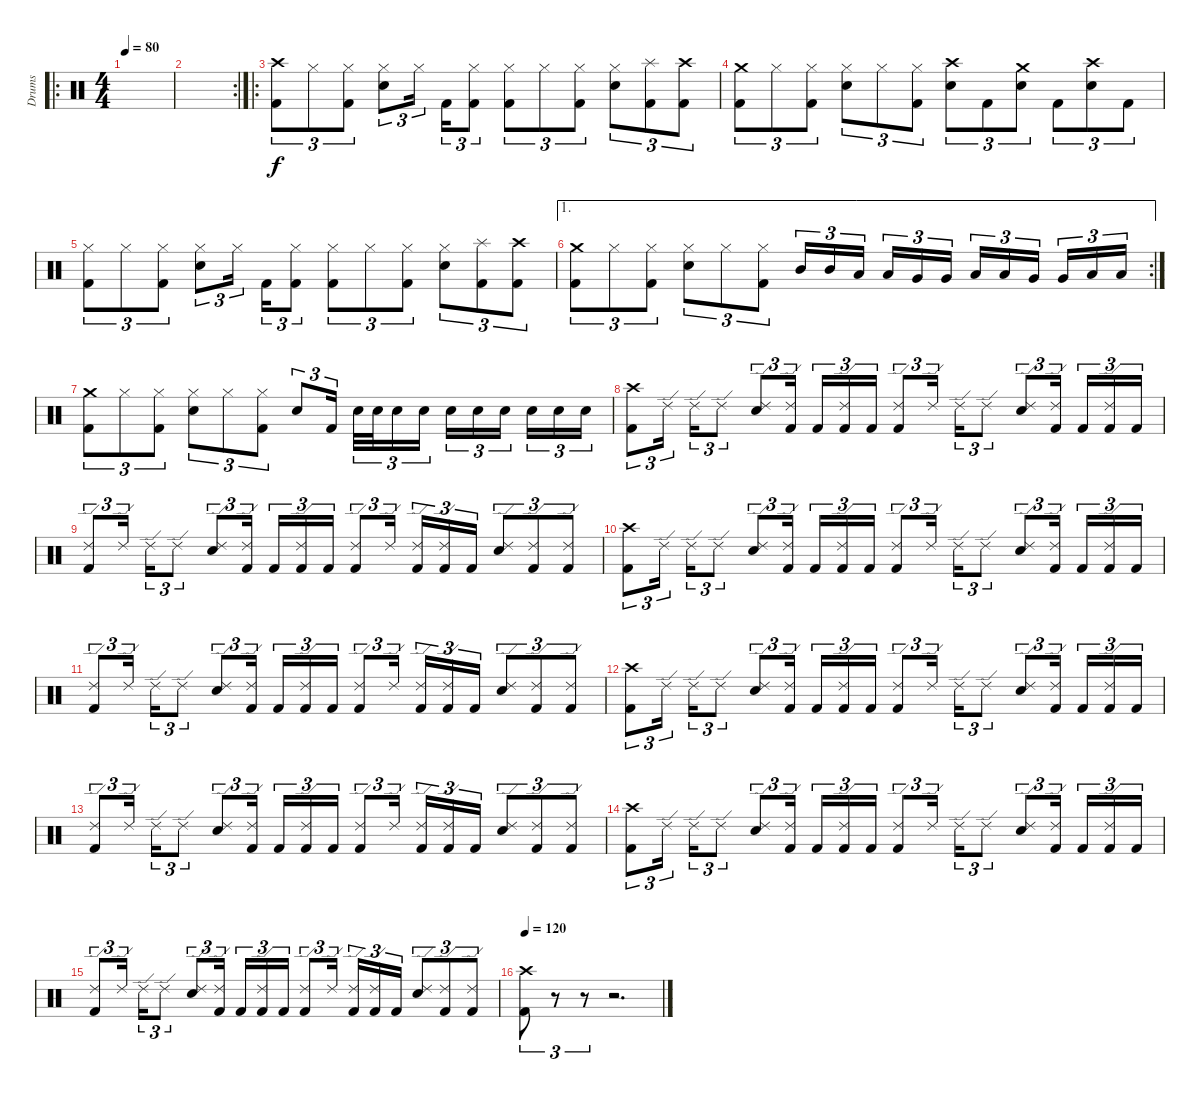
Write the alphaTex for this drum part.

\track ("Drums" "Drums") {instrument percussion}
\staff {score}
\articulation defaults
\ro
\ts (4 4)
\tempo 80
\clef neutral
\ks c
|
\rc 2
|
\ro
("Crash high (hit)" "Kick (hit) 2").8{tu (3 2)} "Hi-Hat (closed)".8{tu (3 2)} ("Hi-Hat (closed)" "Kick (hit) 2").8{tu (3 2)} ("Hi-Hat (closed)" "Electric Snare (hit)").8{tu (3 2)} "Hi-Hat (closed)".16{tu (3 2)} "Kick (hit) 2".16{tu (3 2)} ("Hi-Hat (closed)" "Kick (hit) 2").8{tu (3 2)} ("Hi-Hat (closed)" "Kick (hit) 2").8{tu (3 2)} "Hi-Hat (closed)".8{tu (3 2)} ("Hi-Hat (closed)" "Kick (hit) 2").8{tu (3 2)} ("Hi-Hat (closed)" "Electric Snare (hit)").8{tu (3 2)} ("Splash (hit)" "Kick (hit) 2").8{tu (3 2)} ("Crash high (hit)" "Kick (hit) 2").8{tu (3 2)} |
("Crash medium (hit)" "Kick (hit) 2").8{tu (3 2)} "Hi-Hat (closed)".8{tu (3 2)} ("Hi-Hat (closed)" "Kick (hit) 2").8{tu (3 2)} ("Hi-Hat (closed)" "Electric Snare (hit)").8{tu (3 2)} "Hi-Hat (closed)".8{tu (3 2)} ("Hi-Hat (closed)" "Kick (hit) 2").8{tu (3 2)} ("Crash high (hit)" "Electric Snare (hit)").8{tu (3 2)} "Kick (hit) 2".8{tu (3 2)} ("Crash medium (hit)" "Electric Snare (hit)").8{tu (3 2)} "Kick (hit) 2".8{tu (3 2)} ("Crash high (hit)" "Electric Snare (hit)").8{tu (3 2)} "Kick (hit) 2".8{tu (3 2)} |
("Hi-Hat (closed)" "Kick (hit) 2").8{tu (3 2)} "Hi-Hat (closed)".8{tu (3 2)} ("Hi-Hat (closed)" "Kick (hit) 2").8{tu (3 2)} ("Hi-Hat (closed)" "Electric Snare (hit)").8{tu (3 2)} "Hi-Hat (closed)".16{tu (3 2)} "Kick (hit) 2".16{tu (3 2)} ("Hi-Hat (closed)" "Kick (hit) 2").8{tu (3 2)} ("Hi-Hat (closed)" "Kick (hit) 2").8{tu (3 2)} "Hi-Hat (closed)".8{tu (3 2)} ("Hi-Hat (closed)" "Kick (hit) 2").8{tu (3 2)} ("Hi-Hat (closed)" "Electric Snare (hit)").8{tu (3 2)} ("Splash (hit)" "Kick (hit) 2").8{tu (3 2)} ("Crash high (hit)" "Kick (hit) 2").8{tu (3 2)} |
\ae 1
\rc 2
("Crash medium (hit)" "Kick (hit) 2").8{tu (3 2)} "Hi-Hat (closed)".8{tu (3 2)} ("Hi-Hat (closed)" "Kick (hit) 2").8{tu (3 2)} ("Hi-Hat (closed)" "Electric Snare (hit)").8{tu (3 2)} "Hi-Hat (closed)".8{tu (3 2)} ("Hi-Hat (closed)" "Kick (hit) 2").8{tu (3 2)} "Mid Tom (hit)".16{tu (3 2)} "Mid Tom (hit)".16{tu (3 2)} "Low Tom (hit)".16{tu (3 2)} "Low Tom (hit)".16{tu (3 2)} "Very Low Tom (hit)".16{tu (3 2)} "Very Low Tom (hit)".16{tu (3 2)} "Low Tom (hit)".16{tu (3 2)} "Low Tom (hit)".16{tu (3 2)} "Very Low Tom (hit)".16{tu (3 2)} "Very Low Tom (hit)".16{tu (3 2)} "Low Floor Tom (hit)".16{tu (3 2)} "Low Floor Tom (hit)".16{tu (3 2)} |
("Crash medium (hit)" "Kick (hit) 2").8{tu (3 2)} "Hi-Hat (closed)".8{tu (3 2)} ("Hi-Hat (closed)" "Kick (hit) 2").8{tu (3 2)} ("Hi-Hat (closed)" "Electric Snare (hit)").8{tu (3 2)} "Hi-Hat (closed)".8{tu (3 2)} ("Hi-Hat (closed)" "Kick (hit) 2").8{tu (3 2)} "Electric Snare (hit)".8{tu (3 2)} "Kick (hit) 2".16{tu (3 2)} "Electric Snare (hit)".32{tu (3 2)} "Electric Snare (hit)".32{tu (3 2)} "Electric Snare (hit)".16{tu (3 2)} "Electric Snare (hit)".16{tu (3 2)} "Electric Snare (hit)".16{tu (3 2)} "Electric Snare (hit)".16{tu (3 2)} "Electric Snare (hit)".16{tu (3 2)} "Electric Snare (hit)".16{tu (3 2)} "Electric Snare (hit)".16{tu (3 2)} "Electric Snare (hit)".16{tu (3 2)} |
("Crash high (hit)" "Kick (hit) 2").8{tu (3 2)} "Ride (edge) 2".16{tu (3 2)} "Ride (edge) 2".16{tu (3 2)} "Ride (edge) 2".8{tu (3 2)} ("Ride (edge) 2" "Electric Snare (hit)").8{tu (3 2)} ("Ride (edge) 2" "Kick (hit) 2").16{tu (3 2)} "Kick (hit) 2".16{tu (3 2)} ("Ride (edge) 2" "Kick (hit) 2").16{tu (3 2)} "Kick (hit) 2".16{tu (3 2)} ("Ride (edge) 2" "Kick (hit) 2").8{tu (3 2)} "Ride (edge) 2".16{tu (3 2)} "Ride (edge) 2".16{tu (3 2)} "Ride (edge) 2".8{tu (3 2)} ("Ride (edge) 2" "Electric Snare (hit)").8{tu (3 2)} ("Ride (edge) 2" "Kick (hit) 2").16{tu (3 2)} "Kick (hit) 2".16{tu (3 2)} ("Ride (edge) 2" "Kick (hit) 2").16{tu (3 2)} "Kick (hit) 2".16{tu (3 2)} |
("Ride (edge) 2" "Kick (hit) 2").8{tu (3 2)} "Ride (edge) 2".16{tu (3 2)} "Ride (edge) 2".16{tu (3 2)} "Ride (edge) 2".8{tu (3 2)} ("Ride (edge) 2" "Electric Snare (hit)").8{tu (3 2)} ("Ride (edge) 2" "Kick (hit) 2").16{tu (3 2)} "Kick (hit) 2".16{tu (3 2)} ("Ride (edge) 2" "Kick (hit) 2").16{tu (3 2)} "Kick (hit) 2".16{tu (3 2)} ("Ride (edge) 2" "Kick (hit) 2").8{tu (3 2)} "Ride (edge) 2".16{tu (3 2)} ("Ride (edge) 2" "Kick (hit) 2").16{tu (3 2)} ("Ride (edge) 2" "Kick (hit) 2").16{tu (3 2)} "Kick (hit) 2".16{tu (3 2)} ("Ride (edge) 2" "Electric Snare (hit)").8{tu (3 2)} ("Ride (edge) 2" "Kick (hit) 2").8{tu (3 2)} ("Ride (edge) 2" "Kick (hit) 2").8{tu (3 2)} |
("Crash high (hit)" "Kick (hit) 2").8{tu (3 2)} "Ride (edge) 2".16{tu (3 2)} "Ride (edge) 2".16{tu (3 2)} "Ride (edge) 2".8{tu (3 2)} ("Ride (edge) 2" "Electric Snare (hit)").8{tu (3 2)} ("Ride (edge) 2" "Kick (hit) 2").16{tu (3 2)} "Kick (hit) 2".16{tu (3 2)} ("Ride (edge) 2" "Kick (hit) 2").16{tu (3 2)} "Kick (hit) 2".16{tu (3 2)} ("Ride (edge) 2" "Kick (hit) 2").8{tu (3 2)} "Ride (edge) 2".16{tu (3 2)} "Ride (edge) 2".16{tu (3 2)} "Ride (edge) 2".8{tu (3 2)} ("Ride (edge) 2" "Electric Snare (hit)").8{tu (3 2)} ("Ride (edge) 2" "Kick (hit) 2").16{tu (3 2)} "Kick (hit) 2".16{tu (3 2)} ("Ride (edge) 2" "Kick (hit) 2").16{tu (3 2)} "Kick (hit) 2".16{tu (3 2)} |
("Ride (edge) 2" "Kick (hit) 2").8{tu (3 2)} "Ride (edge) 2".16{tu (3 2)} "Ride (edge) 2".16{tu (3 2)} "Ride (edge) 2".8{tu (3 2)} ("Ride (edge) 2" "Electric Snare (hit)").8{tu (3 2)} ("Ride (edge) 2" "Kick (hit) 2").16{tu (3 2)} "Kick (hit) 2".16{tu (3 2)} ("Ride (edge) 2" "Kick (hit) 2").16{tu (3 2)} "Kick (hit) 2".16{tu (3 2)} ("Ride (edge) 2" "Kick (hit) 2").8{tu (3 2)} "Ride (edge) 2".16{tu (3 2)} ("Ride (edge) 2" "Kick (hit) 2").16{tu (3 2)} ("Ride (edge) 2" "Kick (hit) 2").16{tu (3 2)} "Kick (hit) 2".16{tu (3 2)} ("Ride (edge) 2" "Electric Snare (hit)").8{tu (3 2)} ("Ride (edge) 2" "Kick (hit) 2").8{tu (3 2)} ("Ride (edge) 2" "Kick (hit) 2").8{tu (3 2)} |
("Crash high (hit)" "Kick (hit) 2").8{tu (3 2)} "Ride (edge) 2".16{tu (3 2)} "Ride (edge) 2".16{tu (3 2)} "Ride (edge) 2".8{tu (3 2)} ("Ride (edge) 2" "Electric Snare (hit)").8{tu (3 2)} ("Ride (edge) 2" "Kick (hit) 2").16{tu (3 2)} "Kick (hit) 2".16{tu (3 2)} ("Ride (edge) 2" "Kick (hit) 2").16{tu (3 2)} "Kick (hit) 2".16{tu (3 2)} ("Ride (edge) 2" "Kick (hit) 2").8{tu (3 2)} "Ride (edge) 2".16{tu (3 2)} "Ride (edge) 2".16{tu (3 2)} "Ride (edge) 2".8{tu (3 2)} ("Ride (edge) 2" "Electric Snare (hit)").8{tu (3 2)} ("Ride (edge) 2" "Kick (hit) 2").16{tu (3 2)} "Kick (hit) 2".16{tu (3 2)} ("Ride (edge) 2" "Kick (hit) 2").16{tu (3 2)} "Kick (hit) 2".16{tu (3 2)} |
("Ride (edge) 2" "Kick (hit) 2").8{tu (3 2)} "Ride (edge) 2".16{tu (3 2)} "Ride (edge) 2".16{tu (3 2)} "Ride (edge) 2".8{tu (3 2)} ("Ride (edge) 2" "Electric Snare (hit)").8{tu (3 2)} ("Ride (edge) 2" "Kick (hit) 2").16{tu (3 2)} "Kick (hit) 2".16{tu (3 2)} ("Ride (edge) 2" "Kick (hit) 2").16{tu (3 2)} "Kick (hit) 2".16{tu (3 2)} ("Ride (edge) 2" "Kick (hit) 2").8{tu (3 2)} "Ride (edge) 2".16{tu (3 2)} ("Ride (edge) 2" "Kick (hit) 2").16{tu (3 2)} ("Ride (edge) 2" "Kick (hit) 2").16{tu (3 2)} "Kick (hit) 2".16{tu (3 2)} ("Ride (edge) 2" "Electric Snare (hit)").8{tu (3 2)} ("Ride (edge) 2" "Kick (hit) 2").8{tu (3 2)} ("Ride (edge) 2" "Kick (hit) 2").8{tu (3 2)} |
("Crash high (hit)" "Kick (hit) 2").8{tu (3 2)} "Ride (edge) 2".16{tu (3 2)} "Ride (edge) 2".16{tu (3 2)} "Ride (edge) 2".8{tu (3 2)} ("Ride (edge) 2" "Electric Snare (hit)").8{tu (3 2)} ("Ride (edge) 2" "Kick (hit) 2").16{tu (3 2)} "Kick (hit) 2".16{tu (3 2)} ("Ride (edge) 2" "Kick (hit) 2").16{tu (3 2)} "Kick (hit) 2".16{tu (3 2)} ("Ride (edge) 2" "Kick (hit) 2").8{tu (3 2)} "Ride (edge) 2".16{tu (3 2)} "Ride (edge) 2".16{tu (3 2)} "Ride (edge) 2".8{tu (3 2)} ("Ride (edge) 2" "Electric Snare (hit)").8{tu (3 2)} ("Ride (edge) 2" "Kick (hit) 2").16{tu (3 2)} "Kick (hit) 2".16{tu (3 2)} ("Ride (edge) 2" "Kick (hit) 2").16{tu (3 2)} "Kick (hit) 2".16{tu (3 2)} |
("Ride (edge) 2" "Kick (hit) 2").8{tu (3 2)} "Ride (edge) 2".16{tu (3 2)} "Ride (edge) 2".16{tu (3 2)} "Ride (edge) 2".8{tu (3 2)} ("Ride (edge) 2" "Electric Snare (hit)").8{tu (3 2)} ("Ride (edge) 2" "Kick (hit) 2").16{tu (3 2)} "Kick (hit) 2".16{tu (3 2)} ("Ride (edge) 2" "Kick (hit) 2").16{tu (3 2)} "Kick (hit) 2".16{tu (3 2)} ("Ride (edge) 2" "Kick (hit) 2").8{tu (3 2)} "Ride (edge) 2".16{tu (3 2)} ("Ride (edge) 2" "Kick (hit) 2").16{tu (3 2)} ("Ride (edge) 2" "Kick (hit) 2").16{tu (3 2)} "Kick (hit) 2".16{tu (3 2)} ("Ride (edge) 2" "Electric Snare (hit)").8{tu (3 2)} ("Ride (edge) 2" "Kick (hit) 2").8{tu (3 2)} ("Ride (edge) 2" "Kick (hit) 2").8{tu (3 2)} |
\tempo 120
("Crash high (hit)" "Kick (hit) 2").8{tu (3 2)} r.8{tu (3 2) volume 0} r.8{tu (3 2)} r.2{d}
